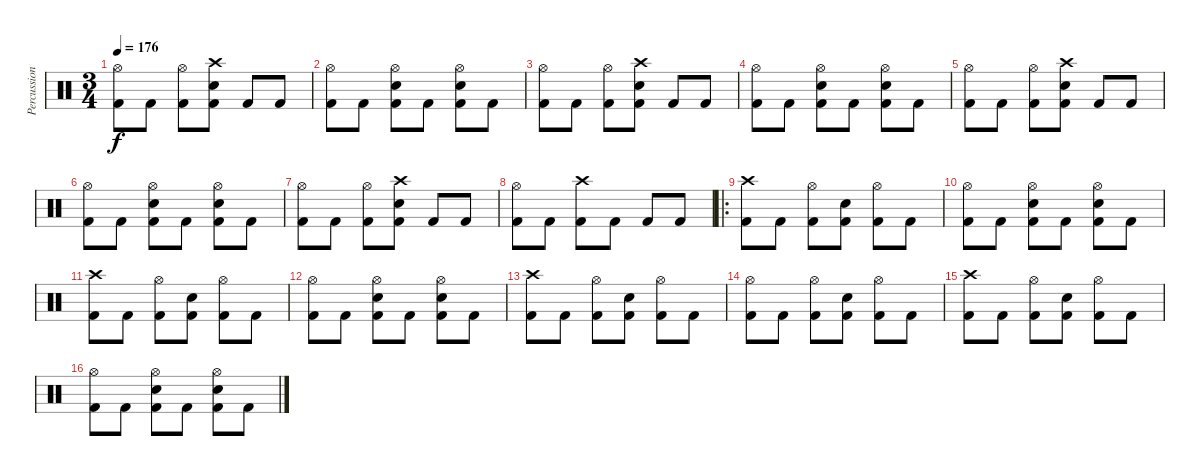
\track ("Percussion" "Percussion") {instrument percussion}
\staff {score}
\articulation defaults
\ts (3 4)
\tempo 176
\clef neutral
\ks c
("Hi-Hat (open)" "Kick (hit) 2").8{dy f} "Kick (hit) 2".8 ("Hi-Hat (open)" "Kick (hit) 2").8 ("Crash high (hit)" "Electric Snare (hit)" "Kick (hit) 2").8 "Kick (hit) 2".8 "Kick (hit) 2".8 |
("Hi-Hat (open)" "Kick (hit) 2").8 "Kick (hit) 2".8 ("Hi-Hat (open)" "Electric Snare (hit)" "Kick (hit) 2").8 "Kick (hit) 2".8 ("Hi-Hat (open)" "Electric Snare (hit)" "Kick (hit) 2").8 "Kick (hit) 2".8 |
("Hi-Hat (open)" "Kick (hit) 2").8 "Kick (hit) 2".8 ("Hi-Hat (open)" "Kick (hit) 2").8 ("Crash high (hit)" "Electric Snare (hit)" "Kick (hit) 2").8 "Kick (hit) 2".8 "Kick (hit) 2".8 |
("Hi-Hat (open)" "Kick (hit) 2").8 "Kick (hit) 2".8 ("Hi-Hat (open)" "Electric Snare (hit)" "Kick (hit) 2").8 "Kick (hit) 2".8 ("Hi-Hat (open)" "Electric Snare (hit)" "Kick (hit) 2").8 "Kick (hit) 2".8 |
("Hi-Hat (open)" "Kick (hit) 2").8 "Kick (hit) 2".8 ("Hi-Hat (open)" "Kick (hit) 2").8 ("Crash high (hit)" "Electric Snare (hit)" "Kick (hit) 2").8 "Kick (hit) 2".8 "Kick (hit) 2".8 |
("Hi-Hat (open)" "Kick (hit) 2").8 "Kick (hit) 2".8 ("Hi-Hat (open)" "Electric Snare (hit)" "Kick (hit) 2").8 "Kick (hit) 2".8 ("Hi-Hat (open)" "Electric Snare (hit)" "Kick (hit) 2").8 "Kick (hit) 2".8 |
("Hi-Hat (open)" "Kick (hit) 2").8 "Kick (hit) 2".8 ("Hi-Hat (open)" "Kick (hit) 2").8 ("Crash high (hit)" "Electric Snare (hit)" "Kick (hit) 2").8 "Kick (hit) 2".8 "Kick (hit) 2".8 |
("Hi-Hat (open)" "Kick (hit) 2").8 "Kick (hit) 2".8 ("Crash high (hit)" "Kick (hit) 2").8 "Kick (hit) 2".8 "Kick (hit) 2".8 "Kick (hit) 2".8 |
\ro
("Crash high (hit)" "Kick (hit) 2").8 "Kick (hit) 2".8 ("Hi-Hat (open)" "Kick (hit) 2").8 ("Electric Snare (hit)" "Kick (hit) 2").8 ("Hi-Hat (open)" "Kick (hit) 2").8 "Kick (hit) 2".8 |
("Hi-Hat (open)" "Kick (hit) 2").8 "Kick (hit) 2".8 ("Hi-Hat (open)" "Electric Snare (hit)" "Kick (hit) 2").8 "Kick (hit) 2".8 ("Hi-Hat (open)" "Electric Snare (hit)" "Kick (hit) 2").8 "Kick (hit) 2".8 |
("Crash high (hit)" "Kick (hit) 2").8 "Kick (hit) 2".8 ("Hi-Hat (open)" "Kick (hit) 2").8 ("Electric Snare (hit)" "Kick (hit) 2").8 ("Hi-Hat (open)" "Kick (hit) 2").8 "Kick (hit) 2".8 |
("Hi-Hat (open)" "Kick (hit) 2").8 "Kick (hit) 2".8 ("Hi-Hat (open)" "Electric Snare (hit)" "Kick (hit) 2").8 "Kick (hit) 2".8 ("Hi-Hat (open)" "Electric Snare (hit)" "Kick (hit) 2").8 "Kick (hit) 2".8 |
("Crash high (hit)" "Kick (hit) 2").8 "Kick (hit) 2".8 ("Hi-Hat (open)" "Kick (hit) 2").8 ("Electric Snare (hit)" "Kick (hit) 2").8 ("Hi-Hat (open)" "Kick (hit) 2").8 "Kick (hit) 2".8 |
("Hi-Hat (open)" "Kick (hit) 2").8 "Kick (hit) 2".8 ("Hi-Hat (open)" "Kick (hit) 2").8 ("Electric Snare (hit)" "Kick (hit) 2").8 ("Hi-Hat (open)" "Kick (hit) 2").8 "Kick (hit) 2".8 |
("Crash high (hit)" "Kick (hit) 2").8 "Kick (hit) 2".8 ("Hi-Hat (open)" "Kick (hit) 2").8 ("Electric Snare (hit)" "Kick (hit) 2").8 ("Hi-Hat (open)" "Kick (hit) 2").8 "Kick (hit) 2".8 |
("Hi-Hat (open)" "Kick (hit) 2").8 "Kick (hit) 2".8 ("Hi-Hat (open)" "Electric Snare (hit)" "Kick (hit) 2").8 "Kick (hit) 2".8 ("Hi-Hat (open)" "Electric Snare (hit)" "Kick (hit) 2").8 "Kick (hit) 2".8
